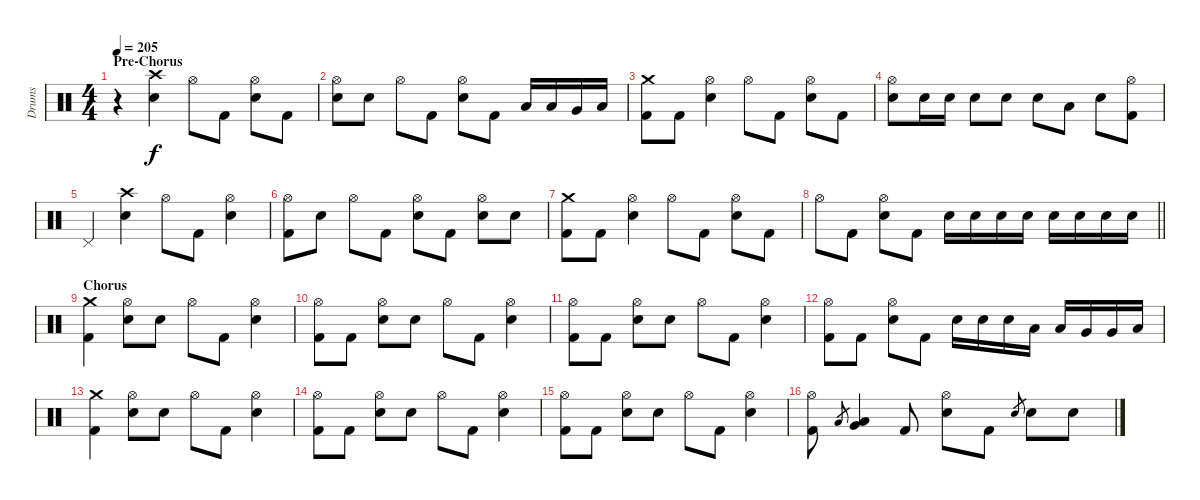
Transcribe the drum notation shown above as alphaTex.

\track ("Drums" "Drums") {instrument percussion}
\staff {score}
\articulation defaults
\ts (4 4)
\section ("" "Pre-Chorus")
\tempo 205
\clef neutral
\ks c
r.4{dy f} ("Crash high (hit)" "Electric Snare (hit)").4 "Hi-Hat (open)".8 "Kick (hit) 2".8 ("Hi-Hat (open)" "Electric Snare (hit)").8 "Kick (hit) 2".8 |
("Hi-Hat (open)" "Electric Snare (hit)").8 "Electric Snare (hit)".8 "Hi-Hat (open)".8 "Kick (hit) 2".8 ("Hi-Hat (open)" "Electric Snare (hit)").8 "Kick (hit) 2".8 "Low Tom (hit)".16 "Low Tom (hit)".16 "Very Low Tom (hit)".16 "Low Floor Tom (hit)".16 |
("Crash medium (hit)" "Kick (hit) 2").8 "Kick (hit) 2".8 ("Hi-Hat (open)" "Electric Snare (hit)").4 "Hi-Hat (open)".8 "Kick (hit) 2".8 ("Hi-Hat (open)" "Electric Snare (hit)").8 "Kick (hit) 2".8 |
("Hi-Hat (open)" "Electric Snare (hit)").8 "Electric Snare (hit)".16 "Electric Snare (hit)".16 "Electric Snare (hit)".8 "Electric Snare (hit)".8 "Electric Snare (hit)".8 "Low Tom (hit)".8 "Electric Snare (hit)".8 ("Hi-Hat (open)" "Kick (hit) 2").8 |
"Pedal Hi-Hat (hit)".4 ("Crash high (hit)" "Electric Snare (hit)").4 "Hi-Hat (open)".8 "Kick (hit) 2".8 ("Hi-Hat (open)" "Electric Snare (hit)").4 |
("Hi-Hat (open)" "Kick (hit) 2").8 "Electric Snare (hit)".8 "Hi-Hat (open)".8 "Kick (hit) 2".8 ("Hi-Hat (open)" "Electric Snare (hit)").8 "Kick (hit) 2".8 ("Hi-Hat (open)" "Electric Snare (hit)").8 "Electric Snare (hit)".8 |
("Crash medium (hit)" "Kick (hit) 2").8 "Kick (hit) 2".8 ("Hi-Hat (open)" "Electric Snare (hit)").4 "Hi-Hat (open)".8 "Kick (hit) 2".8 ("Hi-Hat (open)" "Electric Snare (hit)").8 "Kick (hit) 2".8 |
\barLineRight lightlight "Hi-Hat (open)".8 "Kick (hit) 2".8
("Hi-Hat (open)" "Electric Snare (hit)").8 "Kick (hit) 2".8 "Electric Snare (hit)".16 "Electric Snare (hit)".16 "Electric Snare (hit)".16 "Electric Snare (hit)".16 "Electric Snare (hit)".16 "Electric Snare (hit)".16 "Electric Snare (hit)".16 "Electric Snare (hit)".16 |
\section ("" "Chorus")
("Crash medium (hit)" "Kick (hit) 2").4 ("Hi-Hat (open)" "Electric Snare (hit)").8 "Electric Snare (hit)".8 "Hi-Hat (open)".8 "Kick (hit) 2".8 ("Hi-Hat (open)" "Electric Snare (hit)").4 |
("Hi-Hat (open)" "Kick (hit) 2").8 "Kick (hit) 2".8 ("Hi-Hat (open)" "Electric Snare (hit)").8 "Electric Snare (hit)".8 "Hi-Hat (open)".8 "Kick (hit) 2".8 ("Hi-Hat (open)" "Electric Snare (hit)").4 |
("Hi-Hat (open)" "Kick (hit) 2").8 "Kick (hit) 2".8 ("Hi-Hat (open)" "Electric Snare (hit)").8 "Electric Snare (hit)".8 "Hi-Hat (open)".8 "Kick (hit) 2".8 ("Hi-Hat (open)" "Electric Snare (hit)").4 |
("Hi-Hat (open)" "Kick (hit) 2").8 "Kick (hit) 2".8 ("Hi-Hat (open)" "Electric Snare (hit)").8 "Kick (hit) 2".8 "Electric Snare (hit)".16 "Electric Snare (hit)".16 "Electric Snare (hit)".16 "Low Tom (hit)".16 "Low Tom (hit)".16 "Very Low Tom (hit)".16 "Very Low Tom (hit)".16 "Low Floor Tom (hit)".16 |
("Crash medium (hit)" "Kick (hit) 2").4 ("Hi-Hat (open)" "Electric Snare (hit)").8 "Electric Snare (hit)".8 "Hi-Hat (open)".8 "Kick (hit) 2".8 ("Hi-Hat (open)" "Electric Snare (hit)").4 |
("Hi-Hat (open)" "Kick (hit) 2").8 "Kick (hit) 2".8 ("Hi-Hat (open)" "Electric Snare (hit)").8 "Electric Snare (hit)".8 "Hi-Hat (open)".8 "Kick (hit) 2".8 ("Hi-Hat (open)" "Electric Snare (hit)").4 |
("Hi-Hat (open)" "Kick (hit) 2").8 "Kick (hit) 2".8 ("Hi-Hat (open)" "Electric Snare (hit)").8 "Electric Snare (hit)".8 "Hi-Hat (open)".8 "Kick (hit) 2".8 ("Hi-Hat (open)" "Electric Snare (hit)").4 |
("Hi-Hat (open)" "Kick (hit) 2").8 "Low Tom (hit)".8{gr} ("Very Low Tom (hit)" "Low Tom (hit)").4 "Kick (hit) 2".8 ("Hi-Hat (open)" "Electric Snare (hit)").8 "Kick (hit) 2".8 "Electric Snare (hit)".8{gr} "Electric Snare (hit)".8 "Electric Snare (hit)".8
